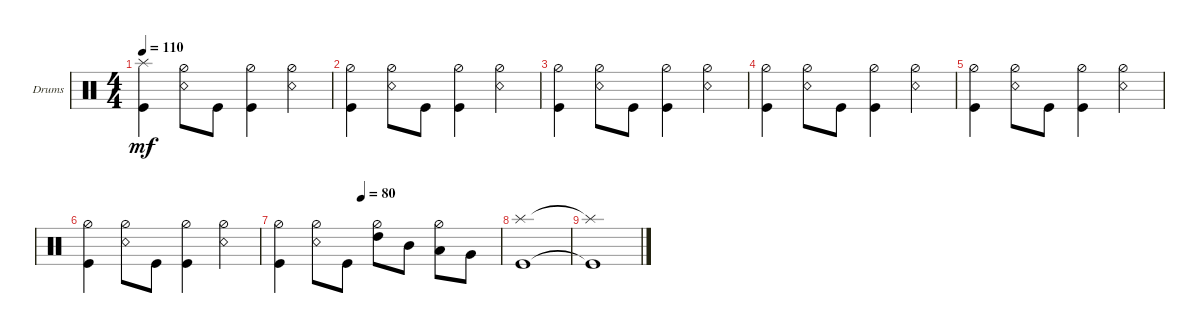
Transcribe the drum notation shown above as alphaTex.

\bracketExtendMode groupsimilarinstruments
\firstSystemTrackNameOrientation horizontal
\otherSystemsTrackNameOrientation horizontal
\track ("Drumkit" "Drums") {instrument percussion}
\staff {score}
\articulation defaults
\ts (4 4)
\tempo 110
\clef neutral
\ks c
("Kick (hit)" "Splash (hit)").4{dy mf} ("Snare (rim shot)" "Hi-Hat (half)").8 "Kick (hit)".8 ("Kick (hit)" "Hi-Hat (half)").4 ("Snare (rim shot)" "Hi-Hat (half)").4 |
("Kick (hit)" "Hi-Hat (half)").4 ("Snare (rim shot)" "Hi-Hat (half)").8 "Kick (hit)".8 ("Kick (hit)" "Hi-Hat (half)").4 ("Snare (rim shot)" "Hi-Hat (half)").4 |
("Kick (hit)" "Hi-Hat (half)").4 ("Snare (rim shot)" "Hi-Hat (half)").8 "Kick (hit)".8 ("Kick (hit)" "Hi-Hat (half)").4 ("Snare (rim shot)" "Hi-Hat (half)").4 |
("Kick (hit)" "Hi-Hat (half)").4 ("Snare (rim shot)" "Hi-Hat (half)").8 "Kick (hit)".8 ("Kick (hit)" "Hi-Hat (half)").4 ("Snare (rim shot)" "Hi-Hat (half)").4 |
("Kick (hit)" "Hi-Hat (half)").4 ("Snare (rim shot)" "Hi-Hat (half)").8 "Kick (hit)".8 ("Kick (hit)" "Hi-Hat (half)").4 ("Snare (rim shot)" "Hi-Hat (half)").4 |
("Kick (hit)" "Hi-Hat (half)").4 ("Snare (rim shot)" "Hi-Hat (half)").8 "Kick (hit)".8 ("Kick (hit)" "Hi-Hat (half)").4 ("Snare (rim shot)" "Hi-Hat (half)").4 |
\tempo (80 0.375)
("Kick (hit)" "Hi-Hat (half)").4 ("Snare (rim shot)" "Hi-Hat (half)").8 "Kick (hit)".8 ("High Tom (hit)" "Hi-Hat (half)").8 "Mid Tom (hit)".8 ("Low Tom (hit)" "Hi-Hat (half)").8 "Very Low Tom (hit)".8 |
("Kick (hit)" "Splash (hit)").1 |
("Kick (hit)"{t} "Splash (hit)"{t}).1
